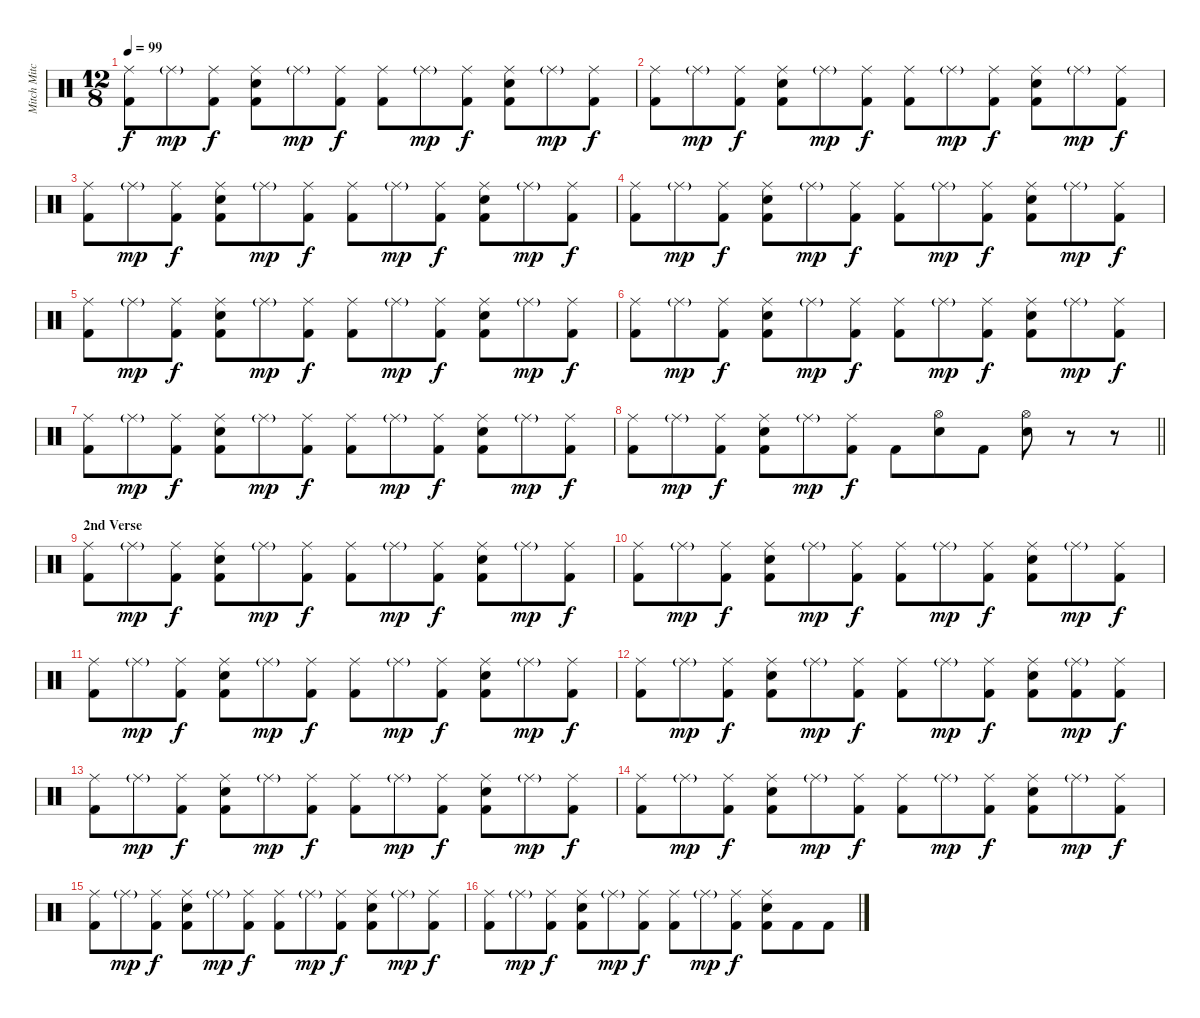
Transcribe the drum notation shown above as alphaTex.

\track ("Mitch Mitchell" "Mitch Mitc") {instrument percussion}
\staff {score}
\articulation defaults
\ts (12 8)
\tempo 99
\clef neutral
\ks c
("Ride (middle)" "Kick (hit) 2").8{dy f} "Ride (middle)"{g}.8{dy mp} ("Ride (middle)" "Kick (hit) 2").8{dy f} ("Ride (middle)" "Electric Snare (hit)" "Kick (hit) 2").8 "Ride (middle)"{g}.8{dy mp} ("Ride (middle)" "Kick (hit) 2").8{dy f} ("Ride (middle)" "Kick (hit) 2").8 "Ride (middle)"{g}.8{dy mp} ("Ride (middle)" "Kick (hit) 2").8{dy f} ("Ride (middle)" "Electric Snare (hit)" "Kick (hit) 2").8 "Ride (middle)"{g}.8{dy mp} ("Ride (middle)" "Kick (hit) 2").8{dy f} |
("Ride (middle)" "Kick (hit) 2").8 "Ride (middle)"{g}.8{dy mp} ("Ride (middle)" "Kick (hit) 2").8{dy f} ("Ride (middle)" "Electric Snare (hit)" "Kick (hit) 2").8 "Ride (middle)"{g}.8{dy mp} ("Ride (middle)" "Kick (hit) 2").8{dy f} ("Ride (middle)" "Kick (hit) 2").8 "Ride (middle)"{g}.8{dy mp} ("Ride (middle)" "Kick (hit) 2").8{dy f} ("Ride (middle)" "Electric Snare (hit)" "Kick (hit) 2").8 "Ride (middle)"{g}.8{dy mp} ("Ride (middle)" "Kick (hit) 2").8{dy f} |
("Ride (middle)" "Kick (hit) 2").8 "Ride (middle)"{g}.8{dy mp} ("Ride (middle)" "Kick (hit) 2").8{dy f} ("Ride (middle)" "Electric Snare (hit)" "Kick (hit) 2").8 "Ride (middle)"{g}.8{dy mp} ("Ride (middle)" "Kick (hit) 2").8{dy f} ("Ride (middle)" "Kick (hit) 2").8 "Ride (middle)"{g}.8{dy mp} ("Ride (middle)" "Kick (hit) 2").8{dy f} ("Ride (middle)" "Electric Snare (hit)" "Kick (hit) 2").8 "Ride (middle)"{g}.8{dy mp} ("Ride (middle)" "Kick (hit) 2").8{dy f} |
("Ride (middle)" "Kick (hit) 2").8 "Ride (middle)"{g}.8{dy mp} ("Ride (middle)" "Kick (hit) 2").8{dy f} ("Ride (middle)" "Electric Snare (hit)" "Kick (hit) 2").8 "Ride (middle)"{g}.8{dy mp} ("Ride (middle)" "Kick (hit) 2").8{dy f} ("Ride (middle)" "Kick (hit) 2").8 "Ride (middle)"{g}.8{dy mp} ("Ride (middle)" "Kick (hit) 2").8{dy f} ("Ride (middle)" "Electric Snare (hit)" "Kick (hit) 2").8 "Ride (middle)"{g}.8{dy mp} ("Ride (middle)" "Kick (hit) 2").8{dy f} |
("Ride (middle)" "Kick (hit) 2").8 "Ride (middle)"{g}.8{dy mp} ("Ride (middle)" "Kick (hit) 2").8{dy f} ("Ride (middle)" "Electric Snare (hit)" "Kick (hit) 2").8 "Ride (middle)"{g}.8{dy mp} ("Ride (middle)" "Kick (hit) 2").8{dy f} ("Ride (middle)" "Kick (hit) 2").8 "Ride (middle)"{g}.8{dy mp} ("Ride (middle)" "Kick (hit) 2").8{dy f} ("Ride (middle)" "Electric Snare (hit)" "Kick (hit) 2").8 "Ride (middle)"{g}.8{dy mp} ("Ride (middle)" "Kick (hit) 2").8{dy f} |
("Ride (middle)" "Kick (hit) 2").8 "Ride (middle)"{g}.8{dy mp} ("Ride (middle)" "Kick (hit) 2").8{dy f} ("Ride (middle)" "Electric Snare (hit)" "Kick (hit) 2").8 "Ride (middle)"{g}.8{dy mp} ("Ride (middle)" "Kick (hit) 2").8{dy f} ("Ride (middle)" "Kick (hit) 2").8 "Ride (middle)"{g}.8{dy mp} ("Ride (middle)" "Kick (hit) 2").8{dy f} ("Ride (middle)" "Electric Snare (hit)" "Kick (hit) 2").8 "Ride (middle)"{g}.8{dy mp} ("Ride (middle)" "Kick (hit) 2").8{dy f} |
("Ride (middle)" "Kick (hit) 2").8 "Ride (middle)"{g}.8{dy mp} ("Ride (middle)" "Kick (hit) 2").8{dy f} ("Ride (middle)" "Electric Snare (hit)" "Kick (hit) 2").8 "Ride (middle)"{g}.8{dy mp} ("Ride (middle)" "Kick (hit) 2").8{dy f} ("Ride (middle)" "Kick (hit) 2").8 "Ride (middle)"{g}.8{dy mp} ("Ride (middle)" "Kick (hit) 2").8{dy f} ("Ride (middle)" "Electric Snare (hit)" "Kick (hit) 2").8 "Ride (middle)"{g}.8{dy mp} ("Ride (middle)" "Kick (hit) 2").8{dy f} |
\barLineRight lightlight
("Ride (middle)" "Kick (hit) 2").8 "Ride (middle)"{g}.8{dy mp} ("Ride (middle)" "Kick (hit) 2").8{dy f} ("Ride (middle)" "Electric Snare (hit)" "Kick (hit) 2").8 "Ride (middle)"{g}.8{dy mp} ("Ride (middle)" "Kick (hit) 2").8{dy f} "Kick (hit) 2".8 ("Hi-Hat (open)" "Electric Snare (hit)").8 "Kick (hit) 2".8 ("Hi-Hat (open)" "Electric Snare (hit)").8 r.8 r.8 |
\section ("" "2nd Verse")
("Ride (middle)" "Kick (hit) 2").8 "Ride (middle)"{g}.8{dy mp} ("Ride (middle)" "Kick (hit) 2").8{dy f} ("Ride (middle)" "Electric Snare (hit)" "Kick (hit) 2").8 "Ride (middle)"{g}.8{dy mp} ("Ride (middle)" "Kick (hit) 2").8{dy f} ("Ride (middle)" "Kick (hit) 2").8 "Ride (middle)"{g}.8{dy mp} ("Ride (middle)" "Kick (hit) 2").8{dy f} ("Ride (middle)" "Electric Snare (hit)" "Kick (hit) 2").8 "Ride (middle)"{g}.8{dy mp} ("Ride (middle)" "Kick (hit) 2").8{dy f} |
("Ride (middle)" "Kick (hit) 2").8 "Ride (middle)"{g}.8{dy mp} ("Ride (middle)" "Kick (hit) 2").8{dy f} ("Ride (middle)" "Electric Snare (hit)" "Kick (hit) 2").8 "Ride (middle)"{g}.8{dy mp} ("Ride (middle)" "Kick (hit) 2").8{dy f} ("Ride (middle)" "Kick (hit) 2").8 "Ride (middle)"{g}.8{dy mp} ("Ride (middle)" "Kick (hit) 2").8{dy f} ("Ride (middle)" "Electric Snare (hit)" "Kick (hit) 2").8 "Ride (middle)"{g}.8{dy mp} ("Ride (middle)" "Kick (hit) 2").8{dy f} |
("Ride (middle)" "Kick (hit) 2").8 "Ride (middle)"{g}.8{dy mp} ("Ride (middle)" "Kick (hit) 2").8{dy f} ("Ride (middle)" "Electric Snare (hit)" "Kick (hit) 2").8 "Ride (middle)"{g}.8{dy mp} ("Ride (middle)" "Kick (hit) 2").8{dy f} ("Ride (middle)" "Kick (hit) 2").8 "Ride (middle)"{g}.8{dy mp} ("Ride (middle)" "Kick (hit) 2").8{dy f} ("Ride (middle)" "Electric Snare (hit)" "Kick (hit) 2").8 "Ride (middle)"{g}.8{dy mp} ("Ride (middle)" "Kick (hit) 2").8{dy f} |
("Ride (middle)" "Kick (hit) 2").8 "Ride (middle)"{g}.8{dy mp} ("Ride (middle)" "Kick (hit) 2").8{dy f} ("Ride (middle)" "Electric Snare (hit)" "Kick (hit) 2").8 "Ride (middle)"{g}.8{dy mp} ("Ride (middle)" "Kick (hit) 2").8{dy f} ("Ride (middle)" "Kick (hit) 2").8 "Ride (middle)"{g}.8{dy mp} ("Ride (middle)" "Kick (hit) 2").8{dy f} ("Ride (middle)" "Electric Snare (hit)" "Kick (hit) 2").8 ("Ride (middle)"{g} "Kick (hit) 2").8{dy mp} ("Ride (middle)" "Kick (hit) 2").8{dy f} |
("Ride (middle)" "Kick (hit) 2").8 "Ride (middle)"{g}.8{dy mp} ("Ride (middle)" "Kick (hit) 2").8{dy f} ("Ride (middle)" "Electric Snare (hit)" "Kick (hit) 2").8 "Ride (middle)"{g}.8{dy mp} ("Ride (middle)" "Kick (hit) 2").8{dy f} ("Ride (middle)" "Kick (hit) 2").8 "Ride (middle)"{g}.8{dy mp} ("Ride (middle)" "Kick (hit) 2").8{dy f} ("Ride (middle)" "Electric Snare (hit)" "Kick (hit) 2").8 "Ride (middle)"{g}.8{dy mp} ("Ride (middle)" "Kick (hit) 2").8{dy f} |
("Ride (middle)" "Kick (hit) 2").8 "Ride (middle)"{g}.8{dy mp} ("Ride (middle)" "Kick (hit) 2").8{dy f} ("Ride (middle)" "Electric Snare (hit)" "Kick (hit) 2").8 "Ride (middle)"{g}.8{dy mp} ("Ride (middle)" "Kick (hit) 2").8{dy f} ("Ride (middle)" "Kick (hit) 2").8 "Ride (middle)"{g}.8{dy mp} ("Ride (middle)" "Kick (hit) 2").8{dy f} ("Ride (middle)" "Electric Snare (hit)" "Kick (hit) 2").8 "Ride (middle)"{g}.8{dy mp} ("Ride (middle)" "Kick (hit) 2").8{dy f} |
("Ride (middle)" "Kick (hit) 2").8 "Ride (middle)"{g}.8{dy mp} ("Ride (middle)" "Kick (hit) 2").8{dy f} ("Ride (middle)" "Electric Snare (hit)" "Kick (hit) 2").8 "Ride (middle)"{g}.8{dy mp} ("Ride (middle)" "Kick (hit) 2").8{dy f} ("Ride (middle)" "Kick (hit) 2").8 "Ride (middle)"{g}.8{dy mp} ("Ride (middle)" "Kick (hit) 2").8{dy f} ("Ride (middle)" "Electric Snare (hit)" "Kick (hit) 2").8 "Ride (middle)"{g}.8{dy mp} ("Ride (middle)" "Kick (hit) 2").8{dy f} |
("Ride (middle)" "Kick (hit) 2").8 "Ride (middle)"{g}.8{dy mp} ("Ride (middle)" "Kick (hit) 2").8{dy f} ("Ride (middle)" "Electric Snare (hit)" "Kick (hit) 2").8 "Ride (middle)"{g}.8{dy mp} ("Ride (middle)" "Kick (hit) 2").8{dy f} ("Ride (middle)" "Kick (hit) 2").8 "Ride (middle)"{g}.8{dy mp} ("Ride (middle)" "Kick (hit) 2").8{dy f} ("Ride (middle)" "Electric Snare (hit)" "Kick (hit) 2").8 "Kick (hit) 2".8 "Kick (hit) 2".8
